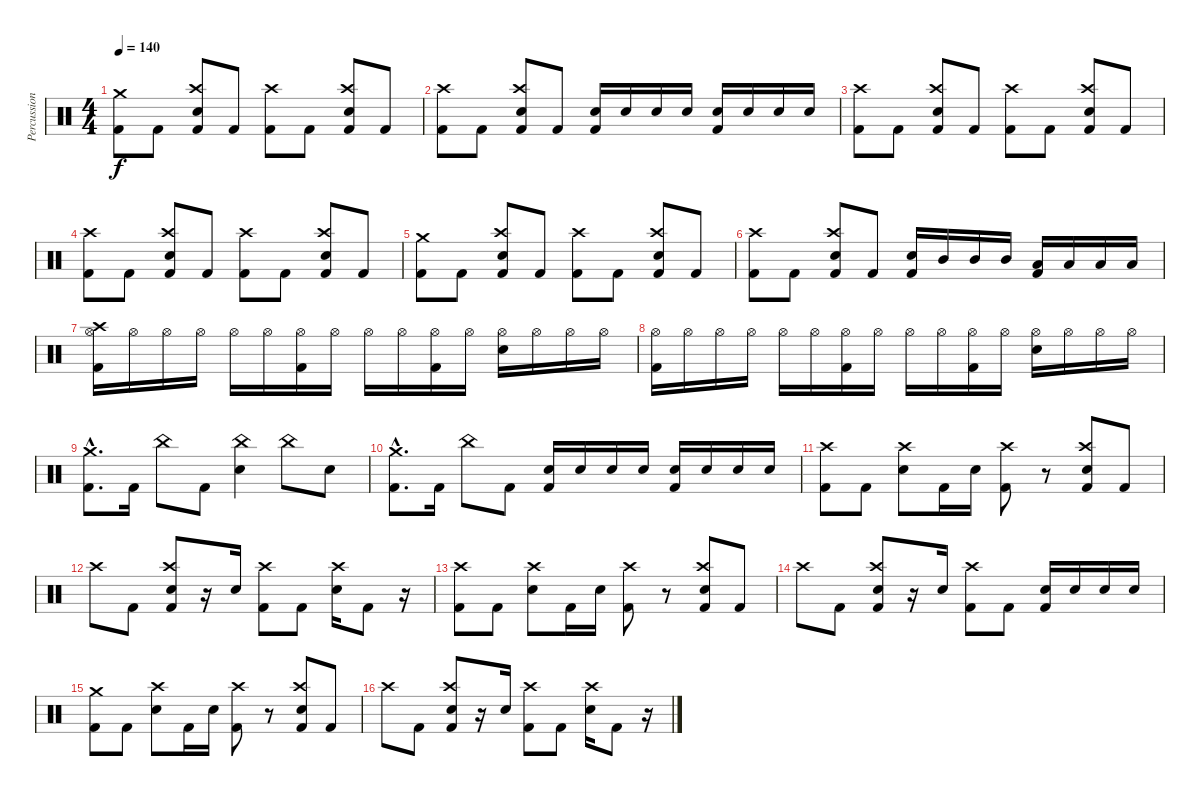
\track ("Percussion" "Percussion") {instrument percussion}
\staff {score}
\articulation defaults
\ts (4 4)
\tempo 140
\clef neutral
\ks c
("Crash medium (hit)" "Kick (hit) 2").8{dy f} "Kick (hit) 2".8 ("Crash high (hit)" "Electric Snare (hit)" "Kick (hit) 2").8 "Kick (hit) 2".8 ("Crash high (hit)" "Kick (hit) 2").8 "Kick (hit) 2".8 ("Crash high (hit)" "Electric Snare (hit)" "Kick (hit) 2").8 "Kick (hit) 2".8 |
("Crash high (hit)" "Kick (hit) 2").8 "Kick (hit) 2".8 ("Crash high (hit)" "Electric Snare (hit)" "Kick (hit) 2").8 "Kick (hit) 2".8 ("Electric Snare (hit)" "Kick (hit) 2").16 "Electric Snare (hit)".16 "Electric Snare (hit)".16 "Electric Snare (hit)".16 ("Electric Snare (hit)" "Kick (hit) 2").16 "Electric Snare (hit)".16 "Electric Snare (hit)".16 "Electric Snare (hit)".16 |
("Crash high (hit)" "Kick (hit) 2").8 "Kick (hit) 2".8 ("Crash high (hit)" "Electric Snare (hit)" "Kick (hit) 2").8 "Kick (hit) 2".8 ("Crash high (hit)" "Kick (hit) 2").8 "Kick (hit) 2".8 ("Crash high (hit)" "Electric Snare (hit)" "Kick (hit) 2").8 "Kick (hit) 2".8 |
("Crash high (hit)" "Kick (hit) 2").8 "Kick (hit) 2".8 ("Crash high (hit)" "Electric Snare (hit)" "Kick (hit) 2").8 "Kick (hit) 2".8 ("Crash high (hit)" "Kick (hit) 2").8 "Kick (hit) 2".8 ("Crash high (hit)" "Electric Snare (hit)" "Kick (hit) 2").8 "Kick (hit) 2".8 |
("Crash medium (hit)" "Kick (hit) 2").8 "Kick (hit) 2".8 ("Crash high (hit)" "Electric Snare (hit)" "Kick (hit) 2").8 "Kick (hit) 2".8 ("Crash high (hit)" "Kick (hit) 2").8 "Kick (hit) 2".8 ("Crash high (hit)" "Electric Snare (hit)" "Kick (hit) 2").8 "Kick (hit) 2".8 |
("Crash high (hit)" "Kick (hit) 2").8 "Kick (hit) 2".8 ("Crash high (hit)" "Electric Snare (hit)" "Kick (hit) 2").8 "Kick (hit) 2".8 ("Electric Snare (hit)" "Kick (hit) 2").16 "Mid Tom (hit)".16 "Mid Tom (hit)".16 "Mid Tom (hit)".16 ("Low Tom (hit)" "Kick (hit) 2").16 "Low Tom (hit)".16 "Low Floor Tom (hit)".16 "Low Floor Tom (hit)".16 |
("Crash high (hit)" "Hi-Hat (open)" "Kick (hit) 2").16 "Hi-Hat (open)".16 "Hi-Hat (open)".16 "Hi-Hat (open)".16 "Hi-Hat (open)".16 "Hi-Hat (open)".16 ("Hi-Hat (open)" "Kick (hit) 2").16 "Hi-Hat (open)".16 "Hi-Hat (open)".16 "Hi-Hat (open)".16 ("Hi-Hat (open)" "Kick (hit) 2").16 "Hi-Hat (open)".16 ("Hi-Hat (open)" "Electric Snare (hit)").16 "Hi-Hat (open)".16 "Hi-Hat (open)".16 "Hi-Hat (open)".16 |
("Hi-Hat (open)" "Kick (hit) 2").16 "Hi-Hat (open)".16 "Hi-Hat (open)".16 "Hi-Hat (open)".16 "Hi-Hat (open)".16 "Hi-Hat (open)".16 ("Hi-Hat (open)" "Kick (hit) 2").16 "Hi-Hat (open)".16 "Hi-Hat (open)".16 "Hi-Hat (open)".16 ("Hi-Hat (open)" "Kick (hit) 2").16 "Hi-Hat (open)".16 ("Hi-Hat (open)" "Electric Snare (hit)").16 "Hi-Hat (open)".16 "Hi-Hat (open)".16 "Hi-Hat (open)".16 |
("Crash medium (hit)"{hac} "Kick (hit) 2"{hac}).8{d} "Kick (hit) 2".16 "China (hit)".8 "Kick (hit) 2".8 ("China (hit)" "Electric Snare (hit)").4 "China (hit)".8 "Electric Snare (hit)".8 |
("Crash medium (hit)"{hac} "Kick (hit) 2"{hac}).8{d} "Kick (hit) 2".16 "China (hit)".8 "Kick (hit) 2".8 ("Electric Snare (hit)" "Kick (hit) 2").16 "Electric Snare (hit)".16 "Electric Snare (hit)".16 "Electric Snare (hit)".16 ("Electric Snare (hit)" "Kick (hit) 2").16 "Electric Snare (hit)".16 "Electric Snare (hit)".16 "Electric Snare (hit)".16 |
("Crash high (hit)" "Kick (hit) 2").8 "Kick (hit) 2".8 ("Crash high (hit)" "Electric Snare (hit)").8 "Kick (hit) 2".16 "Electric Snare (hit)".16 ("Crash high (hit)" "Kick (hit) 2").8 r.8 ("Crash high (hit)" "Electric Snare (hit)" "Kick (hit) 2").8 "Kick (hit) 2".8 |
"Crash high (hit)".8 "Kick (hit) 2".8 ("Crash high (hit)" "Electric Snare (hit)" "Kick (hit) 2").8 r.16 "Electric Snare (hit)".16 ("Crash high (hit)" "Kick (hit) 2").8 "Kick (hit) 2".8 ("Crash high (hit)" "Electric Snare (hit)").16 "Kick (hit) 2".8 r.16 |
("Crash high (hit)" "Kick (hit) 2").8 "Kick (hit) 2".8 ("Crash high (hit)" "Electric Snare (hit)").8 "Kick (hit) 2".16 "Electric Snare (hit)".16 ("Crash high (hit)" "Kick (hit) 2").8 r.8 ("Crash high (hit)" "Electric Snare (hit)" "Kick (hit) 2").8 "Kick (hit) 2".8 |
"Crash high (hit)".8 "Kick (hit) 2".8 ("Crash high (hit)" "Electric Snare (hit)" "Kick (hit) 2").8 r.16 "Electric Snare (hit)".16 ("Crash high (hit)" "Kick (hit) 2").8 "Kick (hit) 2".8 ("Electric Snare (hit)" "Kick (hit) 2").16 "Electric Snare (hit)".16 "Electric Snare (hit)".16 "Electric Snare (hit)".16 |
("Crash medium (hit)" "Kick (hit) 2").8 "Kick (hit) 2".8 ("Crash high (hit)" "Electric Snare (hit)").8 "Kick (hit) 2".16 "Electric Snare (hit)".16 ("Crash high (hit)" "Kick (hit) 2").8 r.8 ("Crash high (hit)" "Electric Snare (hit)" "Kick (hit) 2").8 "Kick (hit) 2".8 |
"Crash high (hit)".8 "Kick (hit) 2".8 ("Crash high (hit)" "Electric Snare (hit)" "Kick (hit) 2").8 r.16 "Electric Snare (hit)".16 ("Crash high (hit)" "Kick (hit) 2").8 "Kick (hit) 2".8 ("Crash high (hit)" "Electric Snare (hit)").16 "Kick (hit) 2".8 r.16
